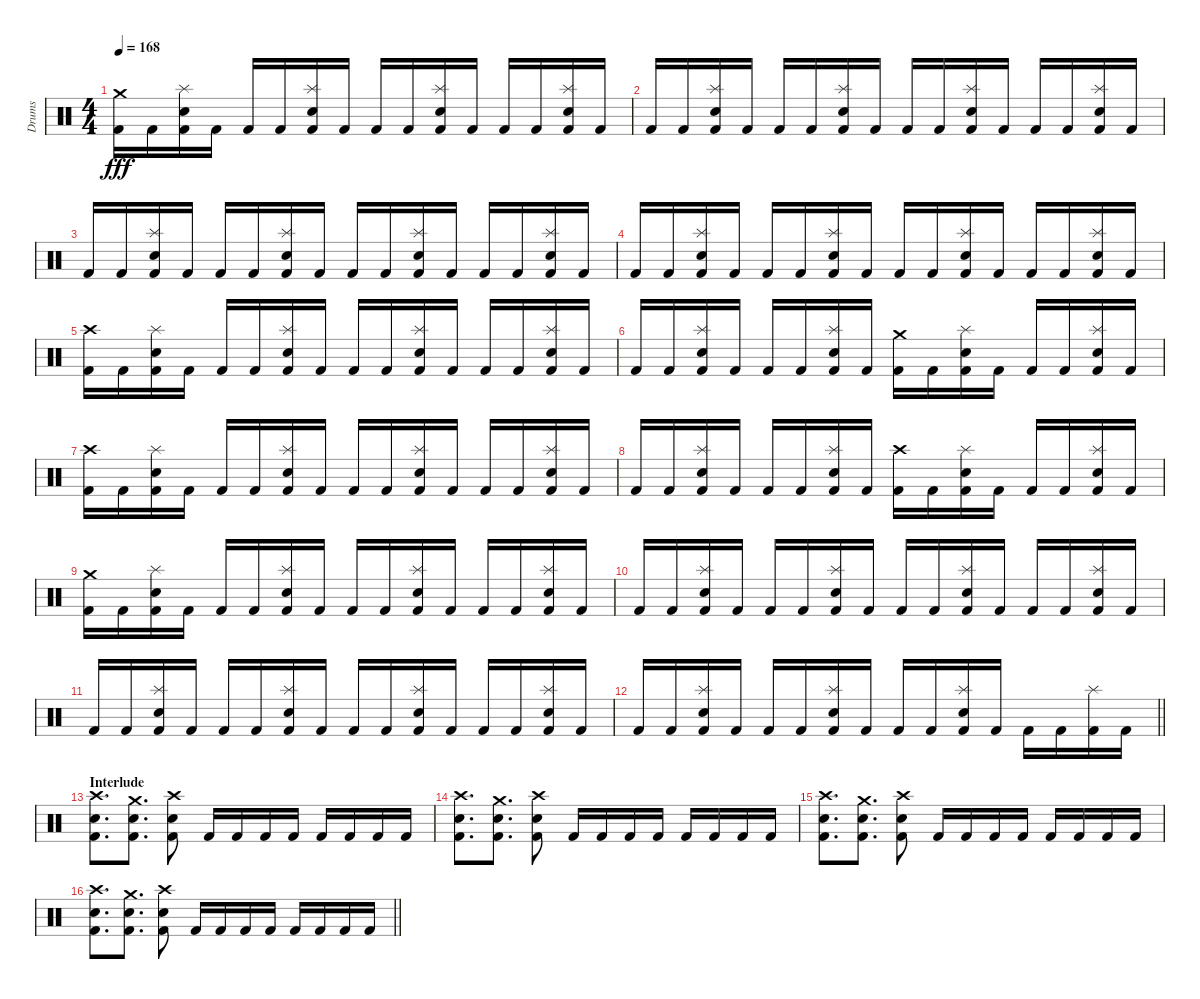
\track ("Drums" "Drums") {instrument percussion}
\staff {score}
\articulation defaults
\ts (4 4)
\tempo 168
\clef neutral
\ks aminor
("Crash medium (hit)" "Kick (hit) 2").16{dy fff} "Kick (hit) 2".16 ("Splash (hit)" "Snare (hit) 2" "Kick (hit) 2").16 "Kick (hit) 2".16 "Kick (hit) 2".16 "Kick (hit) 2".16 ("Splash (hit)" "Snare (hit) 2" "Kick (hit) 2").16 "Kick (hit) 2".16 "Kick (hit) 2".16 "Kick (hit) 2".16 ("Splash (hit)" "Snare (hit) 2" "Kick (hit) 2").16 "Kick (hit) 2".16 "Kick (hit) 2".16 "Kick (hit) 2".16 ("Splash (hit)" "Snare (hit) 2" "Kick (hit) 2").16 "Kick (hit) 2".16 |
"Kick (hit) 2".16 "Kick (hit) 2".16 ("Splash (hit)" "Snare (hit) 2" "Kick (hit) 2").16 "Kick (hit) 2".16 "Kick (hit) 2".16 "Kick (hit) 2".16 ("Splash (hit)" "Snare (hit) 2" "Kick (hit) 2").16 "Kick (hit) 2".16 "Kick (hit) 2".16 "Kick (hit) 2".16 ("Splash (hit)" "Snare (hit) 2" "Kick (hit) 2").16 "Kick (hit) 2".16 "Kick (hit) 2".16 "Kick (hit) 2".16 ("Splash (hit)" "Snare (hit) 2" "Kick (hit) 2").16 "Kick (hit) 2".16 |
"Kick (hit) 2".16 "Kick (hit) 2".16 ("Splash (hit)" "Snare (hit) 2" "Kick (hit) 2").16 "Kick (hit) 2".16 "Kick (hit) 2".16 "Kick (hit) 2".16 ("Splash (hit)" "Snare (hit) 2" "Kick (hit) 2").16 "Kick (hit) 2".16 "Kick (hit) 2".16 "Kick (hit) 2".16 ("Splash (hit)" "Snare (hit) 2" "Kick (hit) 2").16 "Kick (hit) 2".16 "Kick (hit) 2".16 "Kick (hit) 2".16 ("Splash (hit)" "Snare (hit) 2" "Kick (hit) 2").16 "Kick (hit) 2".16 |
"Kick (hit) 2".16 "Kick (hit) 2".16 ("Splash (hit)" "Snare (hit) 2" "Kick (hit) 2").16 "Kick (hit) 2".16 "Kick (hit) 2".16 "Kick (hit) 2".16 ("Splash (hit)" "Snare (hit) 2" "Kick (hit) 2").16 "Kick (hit) 2".16 "Kick (hit) 2".16 "Kick (hit) 2".16 ("Splash (hit)" "Snare (hit) 2" "Kick (hit) 2").16 "Kick (hit) 2".16 "Kick (hit) 2".16 "Kick (hit) 2".16 ("Splash (hit)" "Snare (hit) 2" "Kick (hit) 2").16 "Kick (hit) 2".16 |
("Crash high (hit)" "Kick (hit) 2").16 "Kick (hit) 2".16 ("Splash (hit)" "Snare (hit) 2" "Kick (hit) 2").16 "Kick (hit) 2".16 "Kick (hit) 2".16 "Kick (hit) 2".16 ("Splash (hit)" "Snare (hit) 2" "Kick (hit) 2").16 "Kick (hit) 2".16 "Kick (hit) 2".16 "Kick (hit) 2".16 ("Splash (hit)" "Snare (hit) 2" "Kick (hit) 2").16 "Kick (hit) 2".16 "Kick (hit) 2".16 "Kick (hit) 2".16 ("Splash (hit)" "Snare (hit) 2" "Kick (hit) 2").16 "Kick (hit) 2".16 |
"Kick (hit) 2".16 "Kick (hit) 2".16 ("Splash (hit)" "Snare (hit) 2" "Kick (hit) 2").16 "Kick (hit) 2".16 "Kick (hit) 2".16 "Kick (hit) 2".16 ("Splash (hit)" "Snare (hit) 2" "Kick (hit) 2").16 "Kick (hit) 2".16 ("Crash medium (hit)" "Kick (hit) 2").16 "Kick (hit) 2".16 ("Splash (hit)" "Snare (hit) 2" "Kick (hit) 2").16 "Kick (hit) 2".16 "Kick (hit) 2".16 "Kick (hit) 2".16 ("Splash (hit)" "Snare (hit) 2" "Kick (hit) 2").16 "Kick (hit) 2".16 |
("Crash high (hit)" "Kick (hit) 2").16 "Kick (hit) 2".16 ("Splash (hit)" "Snare (hit) 2" "Kick (hit) 2").16 "Kick (hit) 2".16 "Kick (hit) 2".16 "Kick (hit) 2".16 ("Splash (hit)" "Snare (hit) 2" "Kick (hit) 2").16 "Kick (hit) 2".16 "Kick (hit) 2".16 "Kick (hit) 2".16 ("Splash (hit)" "Snare (hit) 2" "Kick (hit) 2").16 "Kick (hit) 2".16 "Kick (hit) 2".16 "Kick (hit) 2".16 ("Splash (hit)" "Snare (hit) 2" "Kick (hit) 2").16 "Kick (hit) 2".16 |
"Kick (hit) 2".16 "Kick (hit) 2".16 ("Splash (hit)" "Snare (hit) 2" "Kick (hit) 2").16 "Kick (hit) 2".16 "Kick (hit) 2".16 "Kick (hit) 2".16 ("Splash (hit)" "Snare (hit) 2" "Kick (hit) 2").16 "Kick (hit) 2".16 ("Crash high (hit)" "Kick (hit) 2").16 "Kick (hit) 2".16 ("Splash (hit)" "Snare (hit) 2" "Kick (hit) 2").16 "Kick (hit) 2".16 "Kick (hit) 2".16 "Kick (hit) 2".16 ("Splash (hit)" "Snare (hit) 2" "Kick (hit) 2").16 "Kick (hit) 2".16 |
("Crash medium (hit)" "Kick (hit) 2").16 "Kick (hit) 2".16 ("Splash (hit)" "Snare (hit) 2" "Kick (hit) 2").16 "Kick (hit) 2".16 "Kick (hit) 2".16 "Kick (hit) 2".16 ("Splash (hit)" "Snare (hit) 2" "Kick (hit) 2").16 "Kick (hit) 2".16 "Kick (hit) 2".16 "Kick (hit) 2".16 ("Splash (hit)" "Snare (hit) 2" "Kick (hit) 2").16 "Kick (hit) 2".16 "Kick (hit) 2".16 "Kick (hit) 2".16 ("Splash (hit)" "Snare (hit) 2" "Kick (hit) 2").16 "Kick (hit) 2".16 |
"Kick (hit) 2".16 "Kick (hit) 2".16 ("Splash (hit)" "Snare (hit) 2" "Kick (hit) 2").16 "Kick (hit) 2".16 "Kick (hit) 2".16 "Kick (hit) 2".16 ("Splash (hit)" "Snare (hit) 2" "Kick (hit) 2").16 "Kick (hit) 2".16 "Kick (hit) 2".16 "Kick (hit) 2".16 ("Splash (hit)" "Snare (hit) 2" "Kick (hit) 2").16 "Kick (hit) 2".16 "Kick (hit) 2".16 "Kick (hit) 2".16 ("Splash (hit)" "Snare (hit) 2" "Kick (hit) 2").16 "Kick (hit) 2".16 |
"Kick (hit) 2".16 "Kick (hit) 2".16 ("Splash (hit)" "Snare (hit) 2" "Kick (hit) 2").16 "Kick (hit) 2".16 "Kick (hit) 2".16 "Kick (hit) 2".16 ("Splash (hit)" "Snare (hit) 2" "Kick (hit) 2").16 "Kick (hit) 2".16 "Kick (hit) 2".16 "Kick (hit) 2".16 ("Splash (hit)" "Snare (hit) 2" "Kick (hit) 2").16 "Kick (hit) 2".16 "Kick (hit) 2".16 "Kick (hit) 2".16 ("Splash (hit)" "Snare (hit) 2" "Kick (hit) 2").16 "Kick (hit) 2".16 |
\barLineRight lightlight "Kick (hit) 2".16 "Kick (hit) 2".16
("Splash (hit)" "Snare (hit) 2" "Kick (hit) 2").16 "Kick (hit) 2".16 "Kick (hit) 2".16 "Kick (hit) 2".16 ("Splash (hit)" "Snare (hit) 2" "Kick (hit) 2").16 "Kick (hit) 2".16 "Kick (hit) 2".16 "Kick (hit) 2".16 ("Splash (hit)" "Snare (hit) 2" "Kick (hit) 2").16 "Kick (hit) 2".16 "Kick (hit) 2".16 "Kick (hit) 2".16 ("Splash (hit)" "Kick (hit) 2").16 "Kick (hit) 2".16 |
\section ("" "Interlude")
("Crash high (hit)" "Snare (hit) 2" "Kick (hit) 2").8{d} ("Crash medium (hit)" "Snare (hit) 2" "Kick (hit) 2").8{d} ("Crash high (hit)" "Snare (hit) 2" "Kick (hit) 2").8 "Kick (hit) 2".16 "Kick (hit) 2".16 "Kick (hit) 2".16 "Kick (hit) 2".16 "Kick (hit) 2".16 "Kick (hit) 2".16 "Kick (hit) 2".16 "Kick (hit) 2".16 |
("Crash high (hit)" "Snare (hit) 2" "Kick (hit) 2").8{d} ("Crash medium (hit)" "Snare (hit) 2" "Kick (hit) 2").8{d} ("Crash high (hit)" "Snare (hit) 2" "Kick (hit) 2").8 "Kick (hit) 2".16 "Kick (hit) 2".16 "Kick (hit) 2".16 "Kick (hit) 2".16 "Kick (hit) 2".16 "Kick (hit) 2".16 "Kick (hit) 2".16 "Kick (hit) 2".16 |
("Crash high (hit)" "Snare (hit) 2" "Kick (hit) 2").8{d} ("Crash medium (hit)" "Snare (hit) 2" "Kick (hit) 2").8{d} ("Crash high (hit)" "Snare (hit) 2" "Kick (hit) 2").8 "Kick (hit) 2".16 "Kick (hit) 2".16 "Kick (hit) 2".16 "Kick (hit) 2".16 "Kick (hit) 2".16 "Kick (hit) 2".16 "Kick (hit) 2".16 "Kick (hit) 2".16 |
\barLineRight lightlight
("Crash high (hit)" "Snare (hit) 2" "Kick (hit) 2").8{d} ("Crash medium (hit)" "Snare (hit) 2" "Kick (hit) 2").8{d} ("Crash high (hit)" "Snare (hit) 2" "Kick (hit) 2").8 "Kick (hit) 2".16 "Kick (hit) 2".16 "Kick (hit) 2".16 "Kick (hit) 2".16 "Kick (hit) 2".16 "Kick (hit) 2".16 "Kick (hit) 2".16 "Kick (hit) 2".16
